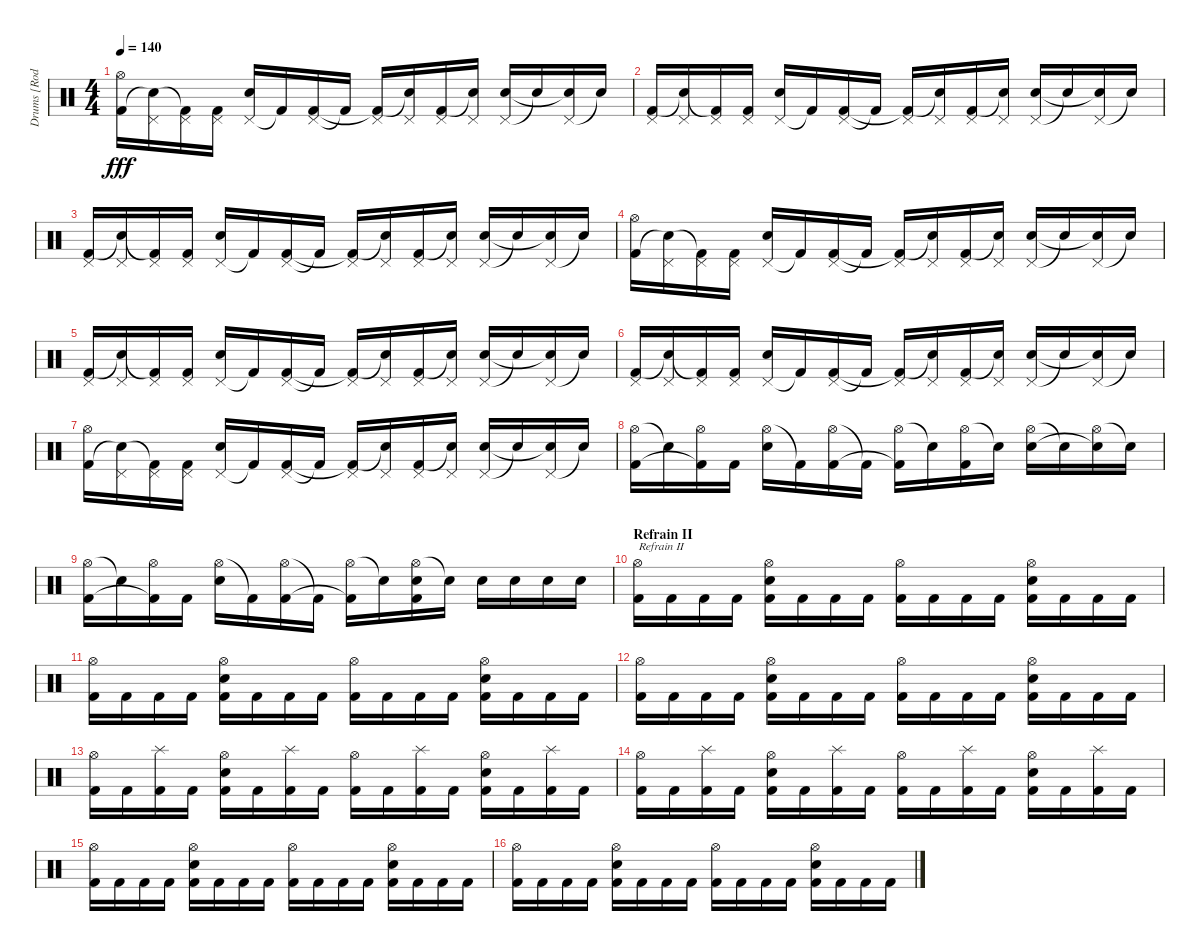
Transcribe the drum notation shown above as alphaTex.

\track ("Drums [Rodney Holder]" "Drums [Rod") {instrument percussion}
\staff {score}
\articulation defaults
\ts (4 4)
\tempo 140
\clef neutral
\ks c
("Hi-Hat (open)" "Kick (hit) 2").16{dy fff} ("Pedal Hi-Hat (hit)" "Snare (hit)"{t}).16 ("Pedal Hi-Hat (hit)" "Kick (hit) 2"{t}).16 ("Pedal Hi-Hat (hit)" "Kick (hit) 2").16 ("Pedal Hi-Hat (hit)" "Electric Snare (hit)").16 "Kick (hit) 2"{t}.16 ("Pedal Hi-Hat (hit)" "Kick (hit) 2").16 "Kick (hit) 2"{t}.16 ("Pedal Hi-Hat (hit)" "Kick (hit) 2"{t}).16 ("Pedal Hi-Hat (hit)" "Snare (hit)"{t}).16 ("Pedal Hi-Hat (hit)" "Kick (hit) 2").16 ("Pedal Hi-Hat (hit)" "Snare (hit)"{t}).16 ("Pedal Hi-Hat (hit)" "Electric Snare (hit)").16 "Snare (hit)"{t}.16 ("Pedal Hi-Hat (hit)" "Snare (hit)"{t}).16 "Snare (hit)"{t}.16 |
("Pedal Hi-Hat (hit)" "Kick (hit) 2").16 ("Pedal Hi-Hat (hit)" "Snare (hit)"{t}).16 ("Pedal Hi-Hat (hit)" "Kick (hit) 2"{t}).16 ("Pedal Hi-Hat (hit)" "Kick (hit) 2").16 ("Pedal Hi-Hat (hit)" "Electric Snare (hit)").16 "Kick (hit) 2"{t}.16 ("Pedal Hi-Hat (hit)" "Kick (hit) 2").16 "Kick (hit) 2"{t}.16 ("Pedal Hi-Hat (hit)" "Kick (hit) 2"{t}).16 ("Pedal Hi-Hat (hit)" "Snare (hit)"{t}).16 ("Pedal Hi-Hat (hit)" "Kick (hit) 2").16 ("Pedal Hi-Hat (hit)" "Snare (hit)"{t}).16 ("Pedal Hi-Hat (hit)" "Electric Snare (hit)").16 "Snare (hit)"{t}.16 ("Pedal Hi-Hat (hit)" "Snare (hit)"{t}).16 "Snare (hit)"{t}.16 |
("Pedal Hi-Hat (hit)" "Kick (hit) 2").16 ("Pedal Hi-Hat (hit)" "Snare (hit)"{t}).16 ("Pedal Hi-Hat (hit)" "Kick (hit) 2"{t}).16 ("Pedal Hi-Hat (hit)" "Kick (hit) 2").16 ("Pedal Hi-Hat (hit)" "Electric Snare (hit)").16 "Kick (hit) 2"{t}.16 ("Pedal Hi-Hat (hit)" "Kick (hit) 2").16 "Kick (hit) 2"{t}.16 ("Pedal Hi-Hat (hit)" "Kick (hit) 2"{t}).16 ("Pedal Hi-Hat (hit)" "Snare (hit)"{t}).16 ("Pedal Hi-Hat (hit)" "Kick (hit) 2").16 ("Pedal Hi-Hat (hit)" "Snare (hit)"{t}).16 ("Pedal Hi-Hat (hit)" "Electric Snare (hit)").16 "Snare (hit)"{t}.16 ("Pedal Hi-Hat (hit)" "Snare (hit)"{t}).16 "Snare (hit)"{t}.16 |
("Hi-Hat (open)" "Kick (hit) 2").16 ("Pedal Hi-Hat (hit)" "Snare (hit)"{t}).16 ("Pedal Hi-Hat (hit)" "Kick (hit) 2"{t}).16 ("Pedal Hi-Hat (hit)" "Kick (hit) 2").16 ("Pedal Hi-Hat (hit)" "Electric Snare (hit)").16 "Kick (hit) 2"{t}.16 ("Pedal Hi-Hat (hit)" "Kick (hit) 2").16 "Kick (hit) 2"{t}.16 ("Pedal Hi-Hat (hit)" "Kick (hit) 2"{t}).16 ("Pedal Hi-Hat (hit)" "Snare (hit)"{t}).16 ("Pedal Hi-Hat (hit)" "Kick (hit) 2").16 ("Pedal Hi-Hat (hit)" "Snare (hit)"{t}).16 ("Pedal Hi-Hat (hit)" "Electric Snare (hit)").16 "Snare (hit)"{t}.16 ("Pedal Hi-Hat (hit)" "Snare (hit)"{t}).16 "Snare (hit)"{t}.16 |
("Pedal Hi-Hat (hit)" "Kick (hit) 2").16 ("Pedal Hi-Hat (hit)" "Snare (hit)"{t}).16 ("Pedal Hi-Hat (hit)" "Kick (hit) 2"{t}).16 ("Pedal Hi-Hat (hit)" "Kick (hit) 2").16 ("Pedal Hi-Hat (hit)" "Electric Snare (hit)").16 "Kick (hit) 2"{t}.16 ("Pedal Hi-Hat (hit)" "Kick (hit) 2").16 "Kick (hit) 2"{t}.16 ("Pedal Hi-Hat (hit)" "Kick (hit) 2"{t}).16 ("Pedal Hi-Hat (hit)" "Snare (hit)"{t}).16 ("Pedal Hi-Hat (hit)" "Kick (hit) 2").16 ("Pedal Hi-Hat (hit)" "Snare (hit)"{t}).16 ("Pedal Hi-Hat (hit)" "Electric Snare (hit)").16 "Snare (hit)"{t}.16 ("Pedal Hi-Hat (hit)" "Snare (hit)"{t}).16 "Snare (hit)"{t}.16 |
("Pedal Hi-Hat (hit)" "Kick (hit) 2").16 ("Pedal Hi-Hat (hit)" "Snare (hit)"{t}).16 ("Pedal Hi-Hat (hit)" "Kick (hit) 2"{t}).16 ("Pedal Hi-Hat (hit)" "Kick (hit) 2").16 ("Pedal Hi-Hat (hit)" "Electric Snare (hit)").16 "Kick (hit) 2"{t}.16 ("Pedal Hi-Hat (hit)" "Kick (hit) 2").16 "Kick (hit) 2"{t}.16 ("Pedal Hi-Hat (hit)" "Kick (hit) 2"{t}).16 ("Pedal Hi-Hat (hit)" "Snare (hit)"{t}).16 ("Pedal Hi-Hat (hit)" "Kick (hit) 2").16 ("Pedal Hi-Hat (hit)" "Snare (hit)"{t}).16 ("Pedal Hi-Hat (hit)" "Electric Snare (hit)").16 "Snare (hit)"{t}.16 ("Pedal Hi-Hat (hit)" "Snare (hit)"{t}).16 "Snare (hit)"{t}.16 |
("Hi-Hat (open)" "Kick (hit) 2").16 ("Pedal Hi-Hat (hit)" "Snare (hit)"{t}).16 ("Pedal Hi-Hat (hit)" "Kick (hit) 2"{t}).16 ("Pedal Hi-Hat (hit)" "Kick (hit) 2").16 ("Pedal Hi-Hat (hit)" "Electric Snare (hit)").16 "Kick (hit) 2"{t}.16 ("Pedal Hi-Hat (hit)" "Kick (hit) 2").16 "Kick (hit) 2"{t}.16 ("Pedal Hi-Hat (hit)" "Kick (hit) 2"{t}).16 ("Pedal Hi-Hat (hit)" "Snare (hit)"{t}).16 ("Pedal Hi-Hat (hit)" "Kick (hit) 2").16 ("Pedal Hi-Hat (hit)" "Snare (hit)"{t}).16 ("Pedal Hi-Hat (hit)" "Electric Snare (hit)").16 "Snare (hit)"{t}.16 ("Pedal Hi-Hat (hit)" "Snare (hit)"{t}).16 "Snare (hit)"{t}.16 |
("Hi-Hat (open)" "Kick (hit) 2").16 "Snare (hit)"{t}.16 ("Hi-Hat (open)" "Kick (hit) 2"{t}).16 "Kick (hit) 2".16 ("Hi-Hat (open)" "Electric Snare (hit)").16 "Kick (hit) 2"{t}.16 ("Hi-Hat (open)" "Kick (hit) 2").16 "Kick (hit) 2"{t}.16 ("Hi-Hat (open)" "Kick (hit) 2"{t}).16 "Snare (hit)"{t}.16 ("Hi-Hat (open)" "Kick (hit) 2").16 "Snare (hit)"{t}.16 ("Hi-Hat (open)" "Electric Snare (hit)").16 "Snare (hit)"{t}.16 ("Hi-Hat (open)" "Snare (hit)"{t}).16 "Snare (hit)"{t}.16 |
("Hi-Hat (open)" "Kick (hit) 2").16 "Snare (hit)"{t}.16 ("Hi-Hat (open)" "Kick (hit) 2"{t}).16 "Kick (hit) 2".16 ("Hi-Hat (open)" "Electric Snare (hit)").16 "Kick (hit) 2"{t}.16 ("Hi-Hat (open)" "Kick (hit) 2").16 "Kick (hit) 2"{t}.16 ("Hi-Hat (open)" "Kick (hit) 2"{t}).16 "Snare (hit)"{t}.16 ("Hi-Hat (open)" "Electric Snare (hit)" "Kick (hit) 2").16 "Snare (hit)"{t}.16 "Electric Snare (hit)".16 "Electric Snare (hit)".16 "Electric Snare (hit)".16 "Electric Snare (hit)".16 |
\section ("" "Refrain II")
("Hi-Hat (open)" "Kick (hit) 2").16{txt "Refrain II"} "Kick (hit) 2".16 "Kick (hit) 2".16 "Kick (hit) 2".16 ("Hi-Hat (open)" "Electric Snare (hit)" "Kick (hit) 2").16 "Kick (hit) 2".16 "Kick (hit) 2".16 "Kick (hit) 2".16 ("Hi-Hat (open)" "Kick (hit) 2").16 "Kick (hit) 2".16 "Kick (hit) 2".16 "Kick (hit) 2".16 ("Hi-Hat (open)" "Electric Snare (hit)" "Kick (hit) 2").16 "Kick (hit) 2".16 "Kick (hit) 2".16 "Kick (hit) 2".16 |
("Hi-Hat (open)" "Kick (hit) 2").16 "Kick (hit) 2".16 "Kick (hit) 2".16 "Kick (hit) 2".16 ("Hi-Hat (open)" "Electric Snare (hit)" "Kick (hit) 2").16 "Kick (hit) 2".16 "Kick (hit) 2".16 "Kick (hit) 2".16 ("Hi-Hat (open)" "Kick (hit) 2").16 "Kick (hit) 2".16 "Kick (hit) 2".16 "Kick (hit) 2".16 ("Hi-Hat (open)" "Electric Snare (hit)" "Kick (hit) 2").16 "Kick (hit) 2".16 "Kick (hit) 2".16 "Kick (hit) 2".16 |
("Hi-Hat (open)" "Kick (hit) 2").16 "Kick (hit) 2".16 "Kick (hit) 2".16 "Kick (hit) 2".16 ("Hi-Hat (open)" "Electric Snare (hit)" "Kick (hit) 2").16 "Kick (hit) 2".16 "Kick (hit) 2".16 "Kick (hit) 2".16 ("Hi-Hat (open)" "Kick (hit) 2").16 "Kick (hit) 2".16 "Kick (hit) 2".16 "Kick (hit) 2".16 ("Hi-Hat (open)" "Electric Snare (hit)" "Kick (hit) 2").16 "Kick (hit) 2".16 "Kick (hit) 2".16 "Kick (hit) 2".16 |
("Hi-Hat (open)" "Kick (hit) 2").16 "Kick (hit) 2".16 ("Splash (hit)" "Kick (hit) 2").16 "Kick (hit) 2".16 ("Hi-Hat (open)" "Electric Snare (hit)" "Kick (hit) 2").16 "Kick (hit) 2".16 ("Splash (hit)" "Kick (hit) 2").16 "Kick (hit) 2".16 ("Hi-Hat (open)" "Kick (hit) 2").16 "Kick (hit) 2".16 ("Splash (hit)" "Kick (hit) 2").16 "Kick (hit) 2".16 ("Hi-Hat (open)" "Electric Snare (hit)" "Kick (hit) 2").16 "Kick (hit) 2".16 ("Splash (hit)" "Kick (hit) 2").16 "Kick (hit) 2".16 |
("Hi-Hat (open)" "Kick (hit) 2").16 "Kick (hit) 2".16 ("Splash (hit)" "Kick (hit) 2").16 "Kick (hit) 2".16 ("Hi-Hat (open)" "Electric Snare (hit)" "Kick (hit) 2").16 "Kick (hit) 2".16 ("Splash (hit)" "Kick (hit) 2").16 "Kick (hit) 2".16 ("Hi-Hat (open)" "Kick (hit) 2").16 "Kick (hit) 2".16 ("Splash (hit)" "Kick (hit) 2").16 "Kick (hit) 2".16 ("Hi-Hat (open)" "Electric Snare (hit)" "Kick (hit) 2").16 "Kick (hit) 2".16 ("Splash (hit)" "Kick (hit) 2").16 "Kick (hit) 2".16 |
("Hi-Hat (open)" "Kick (hit) 2").16 "Kick (hit) 2".16 "Kick (hit) 2".16 "Kick (hit) 2".16 ("Hi-Hat (open)" "Electric Snare (hit)" "Kick (hit) 2").16 "Kick (hit) 2".16 "Kick (hit) 2".16 "Kick (hit) 2".16 ("Hi-Hat (open)" "Kick (hit) 2").16 "Kick (hit) 2".16 "Kick (hit) 2".16 "Kick (hit) 2".16 ("Hi-Hat (open)" "Electric Snare (hit)" "Kick (hit) 2").16 "Kick (hit) 2".16 "Kick (hit) 2".16 "Kick (hit) 2".16 |
("Hi-Hat (open)" "Kick (hit) 2").16 "Kick (hit) 2".16 "Kick (hit) 2".16 "Kick (hit) 2".16 ("Hi-Hat (open)" "Electric Snare (hit)" "Kick (hit) 2").16 "Kick (hit) 2".16 "Kick (hit) 2".16 "Kick (hit) 2".16 ("Hi-Hat (open)" "Kick (hit) 2").16 "Kick (hit) 2".16 "Kick (hit) 2".16 "Kick (hit) 2".16 ("Hi-Hat (open)" "Electric Snare (hit)" "Kick (hit) 2").16 "Kick (hit) 2".16 "Kick (hit) 2".16 "Kick (hit) 2".16
